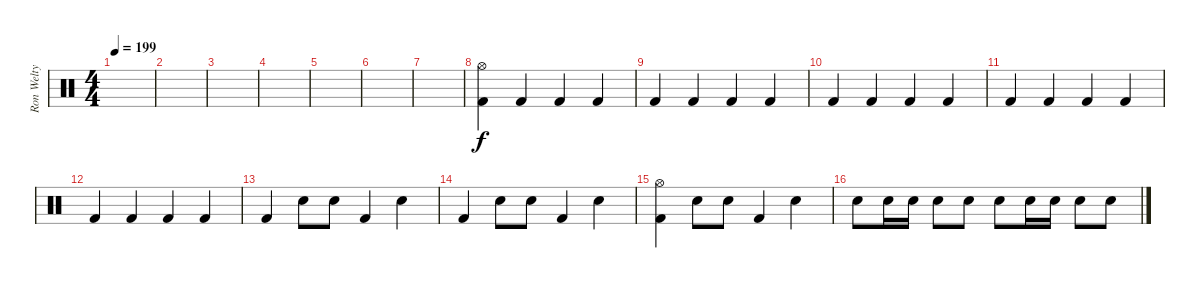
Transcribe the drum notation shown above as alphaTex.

\track ("Ron Welty" "Ron Welty") {instrument percussion}
\staff {score}
\articulation defaults
\ts (4 4)
\tempo 199
\clef neutral
\ks c
|
|
|
|
|
|
|
("Hi-Hat (open)" "Kick (hit) 2").4 "Kick (hit) 2".4 "Kick (hit) 2".4 "Kick (hit) 2".4 |
"Kick (hit) 2".4 "Kick (hit) 2".4 "Kick (hit) 2".4 "Kick (hit) 2".4 |
"Kick (hit) 2".4 "Kick (hit) 2".4 "Kick (hit) 2".4 "Kick (hit) 2".4 |
"Kick (hit) 2".4 "Kick (hit) 2".4 "Kick (hit) 2".4 "Kick (hit) 2".4 |
"Kick (hit) 2".4 "Kick (hit) 2".4 "Kick (hit) 2".4 "Kick (hit) 2".4 |
"Kick (hit) 2".4 "Snare (hit) 2".8 "Snare (hit) 2".8 "Kick (hit) 2".4 "Snare (hit) 2".4 |
"Kick (hit) 2".4 "Snare (hit) 2".8 "Snare (hit) 2".8 "Kick (hit) 2".4 "Snare (hit) 2".4 |
("Hi-Hat (open)" "Kick (hit) 2").4 "Snare (hit) 2".8 "Snare (hit) 2".8 "Kick (hit) 2".4 "Snare (hit) 2".4 |
"Snare (hit) 2".8 "Snare (hit) 2".16 "Snare (hit) 2".16 "Snare (hit) 2".8 "Snare (hit) 2".8 "Snare (hit) 2".8 "Snare (hit) 2".16 "Snare (hit) 2".16 "Snare (hit) 2".8 "Snare (hit) 2".8
